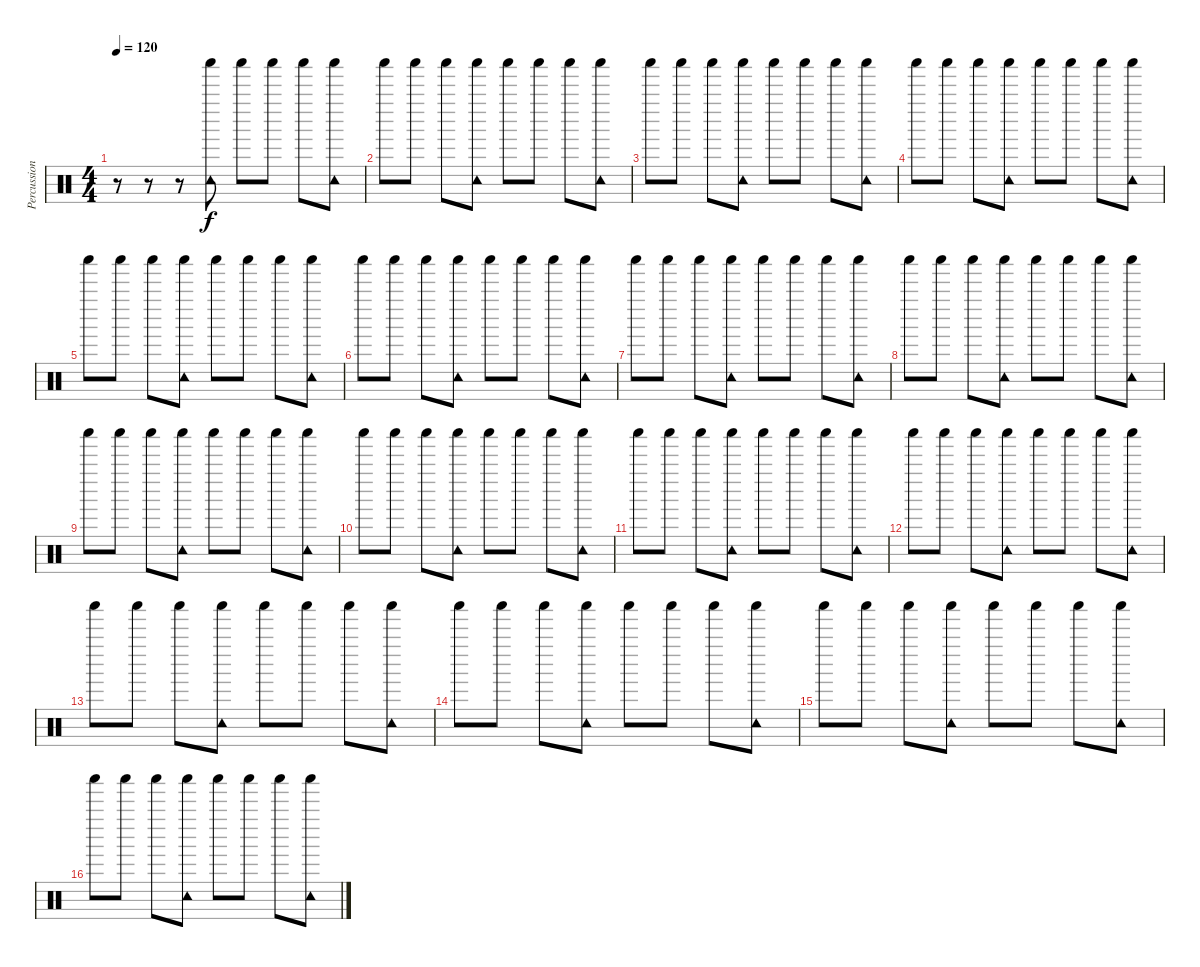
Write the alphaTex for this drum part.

\track ("Percussioni" "Percussion") {instrument percussion}
\staff {score}
\articulation defaults
\ts (4 4)
\tempo 120
\clef neutral
\ks c
r.8{dy f} r.8 r.8 ("Shaker (hit)" "Tambourine (hit)").8 "Shaker (hit)".8 "Shaker (hit)".8 "Shaker (hit)".8 ("Shaker (hit)" "Tambourine (hit)").8 |
"Shaker (hit)".8 "Shaker (hit)".8 "Shaker (hit)".8 ("Shaker (hit)" "Tambourine (hit)").8 "Shaker (hit)".8 "Shaker (hit)".8 "Shaker (hit)".8 ("Shaker (hit)" "Tambourine (hit)").8 |
"Shaker (hit)".8 "Shaker (hit)".8 "Shaker (hit)".8 ("Shaker (hit)" "Tambourine (hit)").8 "Shaker (hit)".8 "Shaker (hit)".8 "Shaker (hit)".8 ("Shaker (hit)" "Tambourine (hit)").8 |
"Shaker (hit)".8 "Shaker (hit)".8 "Shaker (hit)".8 ("Shaker (hit)" "Tambourine (hit)").8 "Shaker (hit)".8 "Shaker (hit)".8 "Shaker (hit)".8 ("Shaker (hit)" "Tambourine (hit)").8 |
"Shaker (hit)".8 "Shaker (hit)".8 "Shaker (hit)".8 ("Shaker (hit)" "Tambourine (hit)").8 "Shaker (hit)".8 "Shaker (hit)".8 "Shaker (hit)".8 ("Shaker (hit)" "Tambourine (hit)").8 |
"Shaker (hit)".8 "Shaker (hit)".8 "Shaker (hit)".8 ("Shaker (hit)" "Tambourine (hit)").8 "Shaker (hit)".8 "Shaker (hit)".8 "Shaker (hit)".8 ("Shaker (hit)" "Tambourine (hit)").8 |
"Shaker (hit)".8 "Shaker (hit)".8 "Shaker (hit)".8 ("Shaker (hit)" "Tambourine (hit)").8 "Shaker (hit)".8 "Shaker (hit)".8 "Shaker (hit)".8 ("Shaker (hit)" "Tambourine (hit)").8 |
"Shaker (hit)".8 "Shaker (hit)".8 "Shaker (hit)".8 ("Shaker (hit)" "Tambourine (hit)").8 "Shaker (hit)".8 "Shaker (hit)".8 "Shaker (hit)".8 ("Shaker (hit)" "Tambourine (hit)").8 |
"Shaker (hit)".8 "Shaker (hit)".8 "Shaker (hit)".8 ("Shaker (hit)" "Tambourine (hit)").8 "Shaker (hit)".8 "Shaker (hit)".8 "Shaker (hit)".8 ("Shaker (hit)" "Tambourine (hit)").8 |
"Shaker (hit)".8 "Shaker (hit)".8 "Shaker (hit)".8 ("Shaker (hit)" "Tambourine (hit)").8 "Shaker (hit)".8 "Shaker (hit)".8 "Shaker (hit)".8 ("Shaker (hit)" "Tambourine (hit)").8 |
"Shaker (hit)".8 "Shaker (hit)".8 "Shaker (hit)".8 ("Shaker (hit)" "Tambourine (hit)").8 "Shaker (hit)".8 "Shaker (hit)".8 "Shaker (hit)".8 ("Shaker (hit)" "Tambourine (hit)").8 |
"Shaker (hit)".8 "Shaker (hit)".8 "Shaker (hit)".8 ("Shaker (hit)" "Tambourine (hit)").8 "Shaker (hit)".8 "Shaker (hit)".8 "Shaker (hit)".8 ("Shaker (hit)" "Tambourine (hit)").8 |
"Shaker (hit)".8 "Shaker (hit)".8 "Shaker (hit)".8 ("Shaker (hit)" "Tambourine (hit)").8 "Shaker (hit)".8 "Shaker (hit)".8 "Shaker (hit)".8 ("Shaker (hit)" "Tambourine (hit)").8 |
"Shaker (hit)".8 "Shaker (hit)".8 "Shaker (hit)".8 ("Shaker (hit)" "Tambourine (hit)").8 "Shaker (hit)".8 "Shaker (hit)".8 "Shaker (hit)".8 ("Shaker (hit)" "Tambourine (hit)").8 |
"Shaker (hit)".8 "Shaker (hit)".8 "Shaker (hit)".8 ("Shaker (hit)" "Tambourine (hit)").8 "Shaker (hit)".8 "Shaker (hit)".8 "Shaker (hit)".8 ("Shaker (hit)" "Tambourine (hit)").8 |
"Shaker (hit)".8 "Shaker (hit)".8 "Shaker (hit)".8 ("Shaker (hit)" "Tambourine (hit)").8 "Shaker (hit)".8 "Shaker (hit)".8 "Shaker (hit)".8 ("Shaker (hit)" "Tambourine (hit)").8
